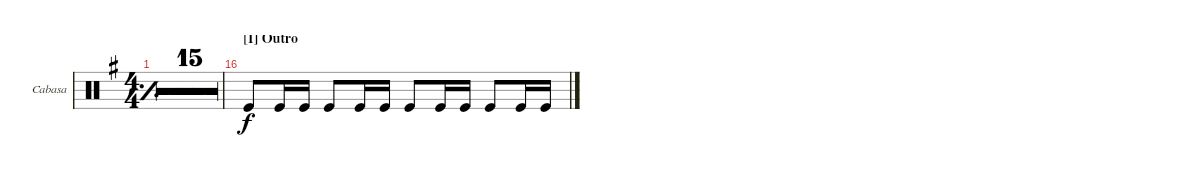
\defaultSystemsLayout 4
\bracketExtendMode groupsimilarinstruments
\firstSystemTrackNameOrientation horizontal
\otherSystemsTrackNameOrientation horizontal
\track ("Cabasa" "Cabasa") {multiBarRest instrument percussion}
\staff {score}
\articulation defaults
\ts (4 4)
\tempo 98
\clef neutral
\simile simple
\ks g
|
|
|
|
|
|
|
|
|
|
|
|
|
|
|
\section ("I" "Outro")
\simile none "Kick (hit)".8 "Kick (hit)".16 "Kick (hit)".16 "Kick (hit)".8 "Kick (hit)".16 "Kick (hit)".16 "Kick (hit)".8 "Kick (hit)".16 "Kick (hit)".16 "Kick (hit)".8 "Kick (hit)".16 "Kick (hit)".16
